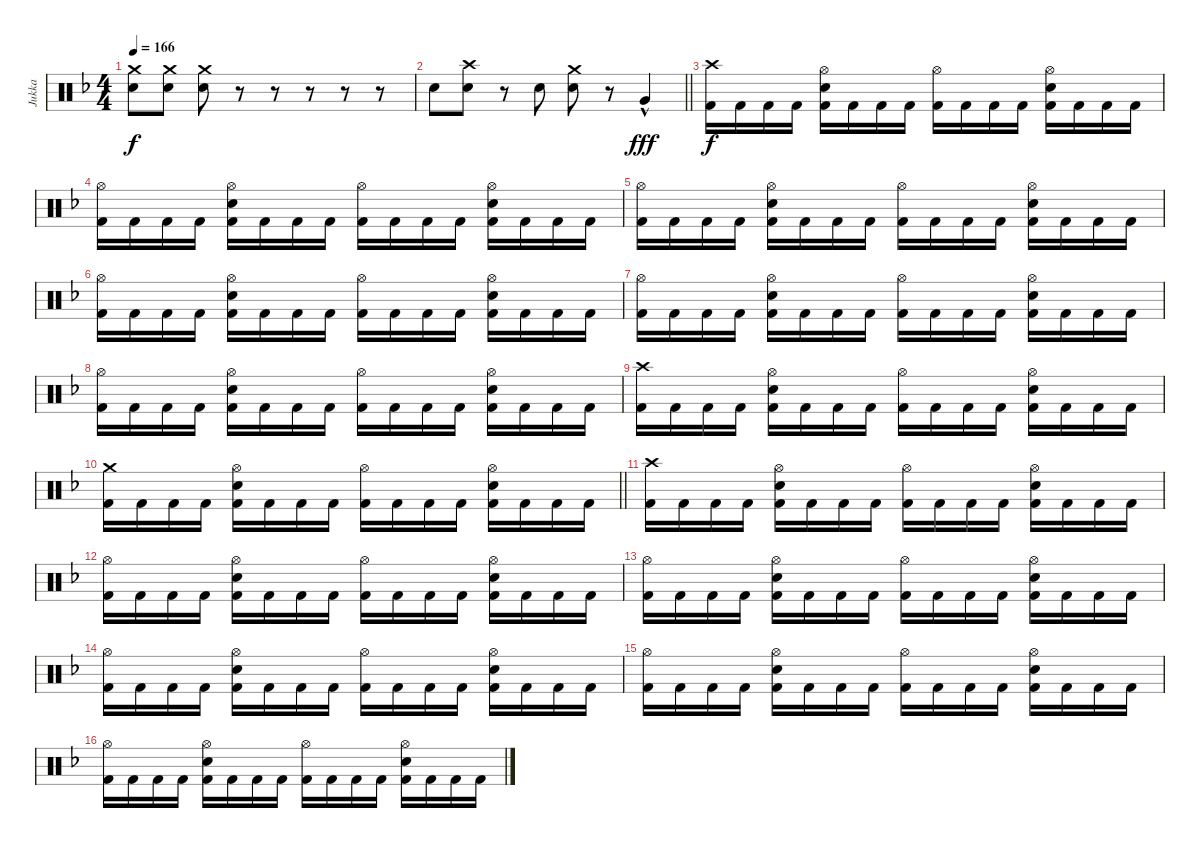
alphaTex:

\track ("Jukka" "Jukka") {instrument percussion}
\staff {score}
\articulation defaults
\ts (4 4)
\tempo 166
\clef neutral
\ks f
("Crash medium (hit)" "Electric Snare (hit)").8{dy f} ("Crash medium (hit)" "Electric Snare (hit)").8 ("Crash medium (hit)" "Electric Snare (hit)").8 r.8 r.8 r.8 r.8 r.8 |
\barLineRight lightlight "Electric Snare (hit)".8
("Crash high (hit)" "Electric Snare (hit)").8 r.8 "Electric Snare (hit)".8 ("Crash medium (hit)" "Electric Snare (hit)").8 r.8 "Very Low Tom (hit)"{hac}.4{dy fff} |
\section ("" "")
("Crash high (hit)" "Kick (hit) 2").16{dy f} "Kick (hit) 2".16 "Kick (hit) 2".16 "Kick (hit) 2".16 ("Hi-Hat (open)" "Kick (hit) 2" "Electric Snare (hit)").16 "Kick (hit) 2".16 "Kick (hit) 2".16 "Kick (hit) 2".16 ("Hi-Hat (open)" "Kick (hit) 2").16 "Kick (hit) 2".16 "Kick (hit) 2".16 "Kick (hit) 2".16 ("Hi-Hat (open)" "Kick (hit) 2" "Electric Snare (hit)").16 "Kick (hit) 2".16 "Kick (hit) 2".16 "Kick (hit) 2".16 |
("Hi-Hat (open)" "Kick (hit) 2").16 "Kick (hit) 2".16 "Kick (hit) 2".16 "Kick (hit) 2".16 ("Hi-Hat (open)" "Kick (hit) 2" "Electric Snare (hit)").16 "Kick (hit) 2".16 "Kick (hit) 2".16 "Kick (hit) 2".16 ("Hi-Hat (open)" "Kick (hit) 2").16 "Kick (hit) 2".16 "Kick (hit) 2".16 "Kick (hit) 2".16 ("Hi-Hat (open)" "Kick (hit) 2" "Electric Snare (hit)").16 "Kick (hit) 2".16 "Kick (hit) 2".16 "Kick (hit) 2".16 |
("Hi-Hat (open)" "Kick (hit) 2").16 "Kick (hit) 2".16 "Kick (hit) 2".16 "Kick (hit) 2".16 ("Hi-Hat (open)" "Kick (hit) 2" "Electric Snare (hit)").16 "Kick (hit) 2".16 "Kick (hit) 2".16 "Kick (hit) 2".16 ("Hi-Hat (open)" "Kick (hit) 2").16 "Kick (hit) 2".16 "Kick (hit) 2".16 "Kick (hit) 2".16 ("Hi-Hat (open)" "Kick (hit) 2" "Electric Snare (hit)").16 "Kick (hit) 2".16 "Kick (hit) 2".16 "Kick (hit) 2".16 |
("Hi-Hat (open)" "Kick (hit) 2").16 "Kick (hit) 2".16 "Kick (hit) 2".16 "Kick (hit) 2".16 ("Hi-Hat (open)" "Kick (hit) 2" "Electric Snare (hit)").16 "Kick (hit) 2".16 "Kick (hit) 2".16 "Kick (hit) 2".16 ("Hi-Hat (open)" "Kick (hit) 2").16 "Kick (hit) 2".16 "Kick (hit) 2".16 "Kick (hit) 2".16 ("Hi-Hat (open)" "Kick (hit) 2" "Electric Snare (hit)").16 "Kick (hit) 2".16 "Kick (hit) 2".16 "Kick (hit) 2".16 |
("Hi-Hat (open)" "Kick (hit) 2").16 "Kick (hit) 2".16 "Kick (hit) 2".16 "Kick (hit) 2".16 ("Hi-Hat (open)" "Kick (hit) 2" "Electric Snare (hit)").16 "Kick (hit) 2".16 "Kick (hit) 2".16 "Kick (hit) 2".16 ("Hi-Hat (open)" "Kick (hit) 2").16 "Kick (hit) 2".16 "Kick (hit) 2".16 "Kick (hit) 2".16 ("Hi-Hat (open)" "Kick (hit) 2" "Electric Snare (hit)").16 "Kick (hit) 2".16 "Kick (hit) 2".16 "Kick (hit) 2".16 |
("Hi-Hat (open)" "Kick (hit) 2").16 "Kick (hit) 2".16 "Kick (hit) 2".16 "Kick (hit) 2".16 ("Hi-Hat (open)" "Kick (hit) 2" "Electric Snare (hit)").16 "Kick (hit) 2".16 "Kick (hit) 2".16 "Kick (hit) 2".16 ("Hi-Hat (open)" "Kick (hit) 2").16 "Kick (hit) 2".16 "Kick (hit) 2".16 "Kick (hit) 2".16 ("Hi-Hat (open)" "Kick (hit) 2" "Electric Snare (hit)").16 "Kick (hit) 2".16 "Kick (hit) 2".16 "Kick (hit) 2".16 |
("Crash high (hit)" "Kick (hit) 2").16 "Kick (hit) 2".16 "Kick (hit) 2".16 "Kick (hit) 2".16 ("Hi-Hat (open)" "Kick (hit) 2" "Electric Snare (hit)").16 "Kick (hit) 2".16 "Kick (hit) 2".16 "Kick (hit) 2".16 ("Hi-Hat (open)" "Kick (hit) 2").16 "Kick (hit) 2".16 "Kick (hit) 2".16 "Kick (hit) 2".16 ("Hi-Hat (open)" "Kick (hit) 2" "Electric Snare (hit)").16 "Kick (hit) 2".16 "Kick (hit) 2".16 "Kick (hit) 2".16 |
\barLineRight lightlight
("Crash medium (hit)" "Kick (hit) 2").16 "Kick (hit) 2".16 "Kick (hit) 2".16 "Kick (hit) 2".16 ("Hi-Hat (open)" "Kick (hit) 2" "Electric Snare (hit)").16 "Kick (hit) 2".16 "Kick (hit) 2".16 "Kick (hit) 2".16 ("Hi-Hat (open)" "Kick (hit) 2").16 "Kick (hit) 2".16 "Kick (hit) 2".16 "Kick (hit) 2".16 ("Hi-Hat (open)" "Kick (hit) 2" "Electric Snare (hit)").16 "Kick (hit) 2".16 "Kick (hit) 2".16 "Kick (hit) 2".16 |
\section ("" "")
("Crash high (hit)" "Kick (hit) 2").16 "Kick (hit) 2".16 "Kick (hit) 2".16 "Kick (hit) 2".16 ("Hi-Hat (open)" "Kick (hit) 2" "Electric Snare (hit)").16 "Kick (hit) 2".16 "Kick (hit) 2".16 "Kick (hit) 2".16 ("Hi-Hat (open)" "Kick (hit) 2").16 "Kick (hit) 2".16 "Kick (hit) 2".16 "Kick (hit) 2".16 ("Hi-Hat (open)" "Kick (hit) 2" "Electric Snare (hit)").16 "Kick (hit) 2".16 "Kick (hit) 2".16 "Kick (hit) 2".16 |
("Hi-Hat (open)" "Kick (hit) 2").16 "Kick (hit) 2".16 "Kick (hit) 2".16 "Kick (hit) 2".16 ("Hi-Hat (open)" "Kick (hit) 2" "Electric Snare (hit)").16 "Kick (hit) 2".16 "Kick (hit) 2".16 "Kick (hit) 2".16 ("Hi-Hat (open)" "Kick (hit) 2").16 "Kick (hit) 2".16 "Kick (hit) 2".16 "Kick (hit) 2".16 ("Hi-Hat (open)" "Kick (hit) 2" "Electric Snare (hit)").16 "Kick (hit) 2".16 "Kick (hit) 2".16 "Kick (hit) 2".16 |
("Hi-Hat (open)" "Kick (hit) 2").16 "Kick (hit) 2".16 "Kick (hit) 2".16 "Kick (hit) 2".16 ("Hi-Hat (open)" "Kick (hit) 2" "Electric Snare (hit)").16 "Kick (hit) 2".16 "Kick (hit) 2".16 "Kick (hit) 2".16 ("Hi-Hat (open)" "Kick (hit) 2").16 "Kick (hit) 2".16 "Kick (hit) 2".16 "Kick (hit) 2".16 ("Hi-Hat (open)" "Kick (hit) 2" "Electric Snare (hit)").16 "Kick (hit) 2".16 "Kick (hit) 2".16 "Kick (hit) 2".16 |
("Hi-Hat (open)" "Kick (hit) 2").16 "Kick (hit) 2".16 "Kick (hit) 2".16 "Kick (hit) 2".16 ("Hi-Hat (open)" "Kick (hit) 2" "Electric Snare (hit)").16 "Kick (hit) 2".16 "Kick (hit) 2".16 "Kick (hit) 2".16 ("Hi-Hat (open)" "Kick (hit) 2").16 "Kick (hit) 2".16 "Kick (hit) 2".16 "Kick (hit) 2".16 ("Hi-Hat (open)" "Kick (hit) 2" "Electric Snare (hit)").16 "Kick (hit) 2".16 "Kick (hit) 2".16 "Kick (hit) 2".16 |
("Hi-Hat (open)" "Kick (hit) 2").16 "Kick (hit) 2".16 "Kick (hit) 2".16 "Kick (hit) 2".16 ("Hi-Hat (open)" "Kick (hit) 2" "Electric Snare (hit)").16 "Kick (hit) 2".16 "Kick (hit) 2".16 "Kick (hit) 2".16 ("Hi-Hat (open)" "Kick (hit) 2").16 "Kick (hit) 2".16 "Kick (hit) 2".16 "Kick (hit) 2".16 ("Hi-Hat (open)" "Kick (hit) 2" "Electric Snare (hit)").16 "Kick (hit) 2".16 "Kick (hit) 2".16 "Kick (hit) 2".16 |
("Hi-Hat (open)" "Kick (hit) 2").16 "Kick (hit) 2".16 "Kick (hit) 2".16 "Kick (hit) 2".16 ("Hi-Hat (open)" "Kick (hit) 2" "Electric Snare (hit)").16 "Kick (hit) 2".16 "Kick (hit) 2".16 "Kick (hit) 2".16 ("Hi-Hat (open)" "Kick (hit) 2").16 "Kick (hit) 2".16 "Kick (hit) 2".16 "Kick (hit) 2".16 ("Hi-Hat (open)" "Kick (hit) 2" "Electric Snare (hit)").16 "Kick (hit) 2".16 "Kick (hit) 2".16 "Kick (hit) 2".16
